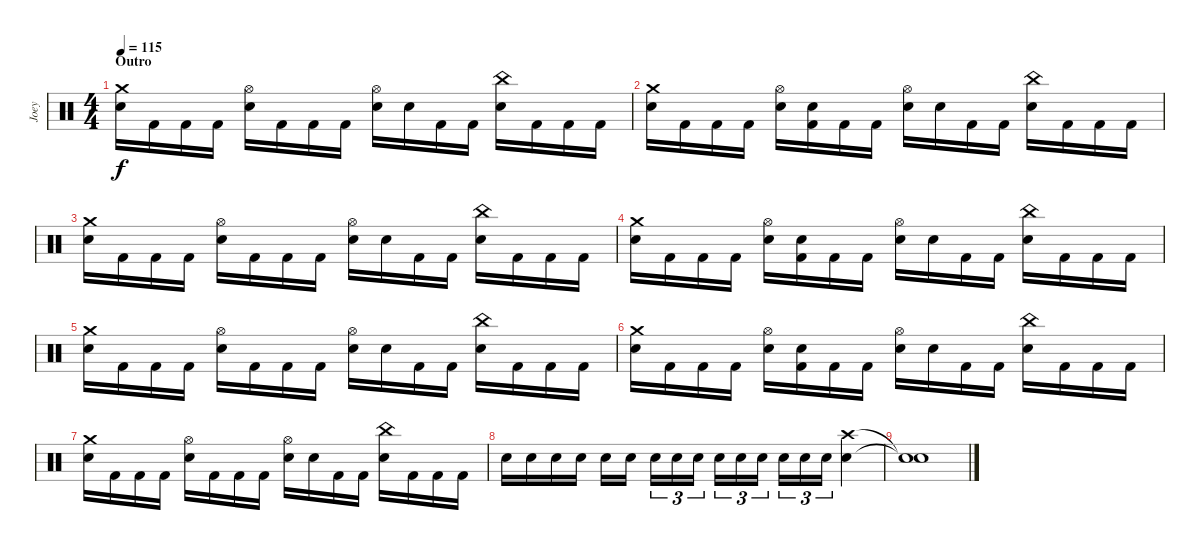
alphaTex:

\track ("Joey" "Joey") {instrument percussion}
\staff {score}
\articulation defaults
\ts (4 4)
\section ("" "Outro")
\tempo 115
\clef neutral
\ks c
("Crash medium (hit)" "Electric Snare (hit)").16{dy f} "Kick (hit) 2".16 "Kick (hit) 2".16 "Kick (hit) 2".16 ("Hi-Hat (open)" "Electric Snare (hit)").16 "Kick (hit) 2".16 "Kick (hit) 2".16 "Kick (hit) 2".16 ("Hi-Hat (open)" "Electric Snare (hit)").16 "Electric Snare (hit)".16 "Kick (hit) 2".16 "Kick (hit) 2".16 ("China (hit)" "Electric Snare (hit)").16 "Kick (hit) 2".16 "Kick (hit) 2".16 "Kick (hit) 2".16 |
("Crash medium (hit)" "Electric Snare (hit)").16 "Kick (hit) 2".16 "Kick (hit) 2".16 "Kick (hit) 2".16 ("Hi-Hat (open)" "Electric Snare (hit)").16 ("Electric Snare (hit)" "Kick (hit) 2").16 "Kick (hit) 2".16 "Kick (hit) 2".16 ("Hi-Hat (open)" "Electric Snare (hit)").16 "Electric Snare (hit)".16 "Kick (hit) 2".16 "Kick (hit) 2".16 ("China (hit)" "Electric Snare (hit)").16 "Kick (hit) 2".16 "Kick (hit) 2".16 "Kick (hit) 2".16 |
("Crash medium (hit)" "Electric Snare (hit)").16 "Kick (hit) 2".16 "Kick (hit) 2".16 "Kick (hit) 2".16 ("Hi-Hat (open)" "Electric Snare (hit)").16 "Kick (hit) 2".16 "Kick (hit) 2".16 "Kick (hit) 2".16 ("Hi-Hat (open)" "Electric Snare (hit)").16 "Electric Snare (hit)".16 "Kick (hit) 2".16 "Kick (hit) 2".16 ("China (hit)" "Electric Snare (hit)").16 "Kick (hit) 2".16 "Kick (hit) 2".16 "Kick (hit) 2".16 |
("Crash medium (hit)" "Electric Snare (hit)").16 "Kick (hit) 2".16 "Kick (hit) 2".16 "Kick (hit) 2".16 ("Hi-Hat (open)" "Electric Snare (hit)").16 ("Electric Snare (hit)" "Kick (hit) 2").16 "Kick (hit) 2".16 "Kick (hit) 2".16 ("Hi-Hat (open)" "Electric Snare (hit)").16 "Electric Snare (hit)".16 "Kick (hit) 2".16 "Kick (hit) 2".16 ("China (hit)" "Electric Snare (hit)").16 "Kick (hit) 2".16 "Kick (hit) 2".16 "Kick (hit) 2".16 |
("Crash medium (hit)" "Electric Snare (hit)").16 "Kick (hit) 2".16 "Kick (hit) 2".16 "Kick (hit) 2".16 ("Hi-Hat (open)" "Electric Snare (hit)").16 "Kick (hit) 2".16 "Kick (hit) 2".16 "Kick (hit) 2".16 ("Hi-Hat (open)" "Electric Snare (hit)").16 "Electric Snare (hit)".16 "Kick (hit) 2".16 "Kick (hit) 2".16 ("China (hit)" "Electric Snare (hit)").16 "Kick (hit) 2".16 "Kick (hit) 2".16 "Kick (hit) 2".16 |
("Crash medium (hit)" "Electric Snare (hit)").16 "Kick (hit) 2".16 "Kick (hit) 2".16 "Kick (hit) 2".16 ("Hi-Hat (open)" "Electric Snare (hit)").16 ("Electric Snare (hit)" "Kick (hit) 2").16 "Kick (hit) 2".16 "Kick (hit) 2".16 ("Hi-Hat (open)" "Electric Snare (hit)").16 "Electric Snare (hit)".16 "Kick (hit) 2".16 "Kick (hit) 2".16 ("China (hit)" "Electric Snare (hit)").16 "Kick (hit) 2".16 "Kick (hit) 2".16 "Kick (hit) 2".16 |
("Crash medium (hit)" "Electric Snare (hit)").16 "Kick (hit) 2".16 "Kick (hit) 2".16 "Kick (hit) 2".16 ("Hi-Hat (open)" "Electric Snare (hit)").16 "Kick (hit) 2".16 "Kick (hit) 2".16 "Kick (hit) 2".16 ("Hi-Hat (open)" "Electric Snare (hit)").16 "Electric Snare (hit)".16 "Kick (hit) 2".16 "Kick (hit) 2".16 ("China (hit)" "Electric Snare (hit)").16 "Kick (hit) 2".16 "Kick (hit) 2".16 "Kick (hit) 2".16 |
"Electric Snare (hit)".16 "Electric Snare (hit)".16 "Electric Snare (hit)".16 "Electric Snare (hit)".16 "Electric Snare (hit)".16 "Electric Snare (hit)".16{beam splitsecondary} "Electric Snare (hit)".16{tu (3 2)} "Electric Snare (hit)".16{tu (3 2)} "Electric Snare (hit)".16{tu (3 2)} "Electric Snare (hit)".16{tu (3 2)} "Electric Snare (hit)".16{tu (3 2)} "Electric Snare (hit)".16{tu (3 2) beam splitsecondary} "Electric Snare (hit)".16{tu (3 2)} "Electric Snare (hit)".16{tu (3 2)} "Electric Snare (hit)".16{tu (3 2)} ("Crash high (hit)" "Electric Snare (hit)").4 |
("Snare (hit)"{t} "Snare (hit)"{t}).1
